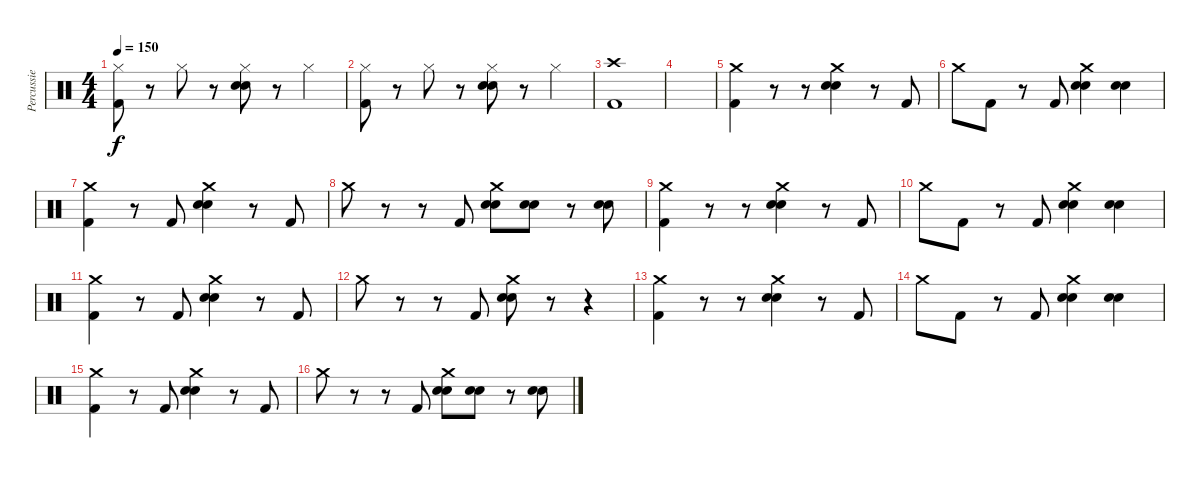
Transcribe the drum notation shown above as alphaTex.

\track ("Percussie" "Percussie") {instrument percussion}
\staff {score}
\articulation defaults
\ts (4 4)
\tempo 150
\clef neutral
\ks c
("Hi-Hat (closed)" "Kick (hit) 2").8{dy f} r.8 "Hi-Hat (closed)".8 r.8 ("Hi-Hat (closed)" "Snare (hit) 2" "Electric Snare (hit)").8 r.8 "Hi-Hat (closed)".4 |
("Hi-Hat (closed)" "Kick (hit) 2").8 r.8 "Hi-Hat (closed)".8 r.8 ("Hi-Hat (closed)" "Snare (hit) 2" "Electric Snare (hit)").8 r.8 "Hi-Hat (closed)".4 |
("Kick (hit) 2" "Crash high (hit)").1 |
|
("Crash medium (hit)" "Kick (hit) 2").4 r.8 r.8 ("Crash medium (hit)" "Electric Snare (hit)" "Snare (hit) 2").4 r.8 "Kick (hit) 2".8 |
"Crash medium (hit)".8 "Kick (hit) 2".8 r.8 "Kick (hit) 2".8 ("Crash medium (hit)" "Electric Snare (hit)" "Snare (hit) 2").4 ("Electric Snare (hit)" "Snare (hit) 2").4 |
("Crash medium (hit)" "Kick (hit) 2").4 r.8 "Kick (hit) 2".8 ("Crash medium (hit)" "Electric Snare (hit)" "Snare (hit) 2").4 r.8 "Kick (hit) 2".8 |
"Crash medium (hit)".8 r.8 r.8 "Kick (hit) 2".8 ("Crash medium (hit)" "Electric Snare (hit)" "Snare (hit) 2").8 ("Electric Snare (hit)" "Snare (hit) 2").8 r.8 ("Electric Snare (hit)" "Snare (hit) 2").8 |
("Crash medium (hit)" "Kick (hit) 2").4 r.8 r.8 ("Crash medium (hit)" "Electric Snare (hit)" "Snare (hit) 2").4 r.8 "Kick (hit) 2".8 |
"Crash medium (hit)".8 "Kick (hit) 2".8 r.8 "Kick (hit) 2".8 ("Crash medium (hit)" "Electric Snare (hit)" "Snare (hit) 2").4 ("Electric Snare (hit)" "Snare (hit) 2").4 |
("Crash medium (hit)" "Kick (hit) 2").4 r.8 "Kick (hit) 2".8 ("Crash medium (hit)" "Electric Snare (hit)" "Snare (hit) 2").4 r.8 "Kick (hit) 2".8 |
"Crash medium (hit)".8 r.8 r.8 "Kick (hit) 2".8 ("Crash medium (hit)" "Electric Snare (hit)" "Snare (hit) 2").8 r.8 r.4 |
("Crash medium (hit)" "Kick (hit) 2").4 r.8 r.8 ("Crash medium (hit)" "Electric Snare (hit)" "Snare (hit) 2").4 r.8 "Kick (hit) 2".8 |
"Crash medium (hit)".8 "Kick (hit) 2".8 r.8 "Kick (hit) 2".8 ("Crash medium (hit)" "Electric Snare (hit)" "Snare (hit) 2").4 ("Electric Snare (hit)" "Snare (hit) 2").4 |
("Crash medium (hit)" "Kick (hit) 2").4 r.8 "Kick (hit) 2".8 ("Crash medium (hit)" "Electric Snare (hit)" "Snare (hit) 2").4 r.8 "Kick (hit) 2".8 |
"Crash medium (hit)".8 r.8 r.8 "Kick (hit) 2".8 ("Crash medium (hit)" "Electric Snare (hit)" "Snare (hit) 2").8 ("Electric Snare (hit)" "Snare (hit) 2").8 r.8 ("Electric Snare (hit)" "Snare (hit) 2").8
